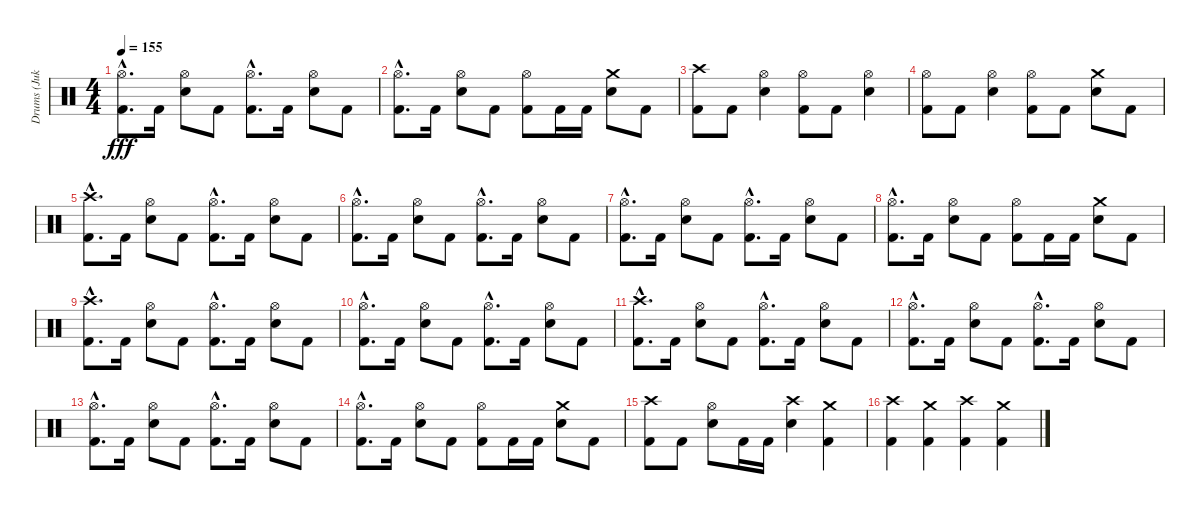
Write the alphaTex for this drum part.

\track ("Drums (Jukka)" "Drums (Juk") {instrument percussion}
\staff {score}
\articulation defaults
\ts (4 4)
\tempo 155
\clef neutral
\ks c
("Kick (hit) 2"{hac} "Hi-Hat (open)"{hac}).8{d dy fff} "Kick (hit) 2".16 ("Snare (hit) 2" "Hi-Hat (open)").8 "Kick (hit) 2".8 ("Kick (hit) 2"{hac} "Hi-Hat (open)"{hac}).8{d} "Kick (hit) 2".16 ("Snare (hit) 2" "Hi-Hat (open)").8 "Kick (hit) 2".8 |
("Kick (hit) 2"{hac} "Hi-Hat (open)"{hac}).8{d} "Kick (hit) 2".16 ("Snare (hit) 2" "Hi-Hat (open)").8 "Kick (hit) 2".8 ("Kick (hit) 2" "Hi-Hat (open)").8 "Kick (hit) 2".16 "Kick (hit) 2".16 ("Snare (hit) 2" "Crash medium (hit)").8 "Kick (hit) 2".8 |
("Kick (hit) 2" "Crash high (hit)").8 "Kick (hit) 2".8 ("Snare (hit) 2" "Hi-Hat (open)").4 ("Kick (hit) 2" "Hi-Hat (open)").8 "Kick (hit) 2".8 ("Snare (hit) 2" "Hi-Hat (open)").4 |
("Kick (hit) 2" "Hi-Hat (open)").8 "Kick (hit) 2".8 ("Snare (hit) 2" "Hi-Hat (open)").4 ("Kick (hit) 2" "Hi-Hat (open)").8 "Kick (hit) 2".8 ("Snare (hit) 2" "Crash medium (hit)").8 "Kick (hit) 2".8 |
("Kick (hit) 2"{hac} "Crash high (hit)"{hac}).8{d} "Kick (hit) 2".16 ("Snare (hit) 2" "Hi-Hat (open)").8 "Kick (hit) 2".8 ("Kick (hit) 2"{hac} "Hi-Hat (open)"{hac}).8{d} "Kick (hit) 2".16 ("Snare (hit) 2" "Hi-Hat (open)").8 "Kick (hit) 2".8 |
("Kick (hit) 2"{hac} "Hi-Hat (open)"{hac}).8{d} "Kick (hit) 2".16 ("Snare (hit) 2" "Hi-Hat (open)").8 "Kick (hit) 2".8 ("Kick (hit) 2"{hac} "Hi-Hat (open)"{hac}).8{d} "Kick (hit) 2".16 ("Snare (hit) 2" "Hi-Hat (open)").8 "Kick (hit) 2".8 |
("Kick (hit) 2"{hac} "Hi-Hat (open)"{hac}).8{d} "Kick (hit) 2".16 ("Snare (hit) 2" "Hi-Hat (open)").8 "Kick (hit) 2".8 ("Kick (hit) 2"{hac} "Hi-Hat (open)"{hac}).8{d} "Kick (hit) 2".16 ("Snare (hit) 2" "Hi-Hat (open)").8 "Kick (hit) 2".8 |
("Kick (hit) 2"{hac} "Hi-Hat (open)"{hac}).8{d} "Kick (hit) 2".16 ("Snare (hit) 2" "Hi-Hat (open)").8 "Kick (hit) 2".8 ("Kick (hit) 2" "Hi-Hat (open)").8 "Kick (hit) 2".16 "Kick (hit) 2".16 ("Snare (hit) 2" "Crash medium (hit)").8 "Kick (hit) 2".8 |
("Kick (hit) 2"{hac} "Crash high (hit)"{hac}).8{d} "Kick (hit) 2".16 ("Snare (hit) 2" "Hi-Hat (open)").8 "Kick (hit) 2".8 ("Kick (hit) 2"{hac} "Hi-Hat (open)"{hac}).8{d} "Kick (hit) 2".16 ("Snare (hit) 2" "Hi-Hat (open)").8 "Kick (hit) 2".8 |
("Kick (hit) 2"{hac} "Hi-Hat (open)"{hac}).8{d} "Kick (hit) 2".16 ("Snare (hit) 2" "Hi-Hat (open)").8 "Kick (hit) 2".8 ("Kick (hit) 2"{hac} "Hi-Hat (open)"{hac}).8{d} "Kick (hit) 2".16 ("Snare (hit) 2" "Hi-Hat (open)").8 "Kick (hit) 2".8 |
("Kick (hit) 2"{hac} "Crash high (hit)"{hac}).8{d} "Kick (hit) 2".16 ("Snare (hit) 2" "Hi-Hat (open)").8 "Kick (hit) 2".8 ("Kick (hit) 2"{hac} "Hi-Hat (open)"{hac}).8{d} "Kick (hit) 2".16 ("Snare (hit) 2" "Hi-Hat (open)").8 "Kick (hit) 2".8 |
("Kick (hit) 2"{hac} "Hi-Hat (open)"{hac}).8{d} "Kick (hit) 2".16 ("Snare (hit) 2" "Hi-Hat (open)").8 "Kick (hit) 2".8 ("Kick (hit) 2"{hac} "Hi-Hat (open)"{hac}).8{d} "Kick (hit) 2".16 ("Snare (hit) 2" "Hi-Hat (open)").8 "Kick (hit) 2".8 |
("Kick (hit) 2"{hac} "Hi-Hat (open)"{hac}).8{d} "Kick (hit) 2".16 ("Snare (hit) 2" "Hi-Hat (open)").8 "Kick (hit) 2".8 ("Kick (hit) 2"{hac} "Hi-Hat (open)"{hac}).8{d} "Kick (hit) 2".16 ("Snare (hit) 2" "Hi-Hat (open)").8 "Kick (hit) 2".8 |
("Kick (hit) 2"{hac} "Hi-Hat (open)"{hac}).8{d} "Kick (hit) 2".16 ("Snare (hit) 2" "Hi-Hat (open)").8 "Kick (hit) 2".8 ("Kick (hit) 2" "Hi-Hat (open)").8 "Kick (hit) 2".16 "Kick (hit) 2".16 ("Snare (hit) 2" "Crash medium (hit)").8 "Kick (hit) 2".8 |
("Kick (hit) 2" "Crash high (hit)").8 "Kick (hit) 2".8 ("Snare (hit) 2" "Hi-Hat (open)").8 "Kick (hit) 2".16 "Kick (hit) 2".16 ("Snare (hit) 2" "Crash high (hit)").4 ("Kick (hit) 2" "Crash medium (hit)").4 |
("Kick (hit) 2" "Crash high (hit)").4 ("Kick (hit) 2" "Crash medium (hit)").4 ("Kick (hit) 2" "Crash high (hit)").4 ("Kick (hit) 2" "Crash medium (hit)").4
